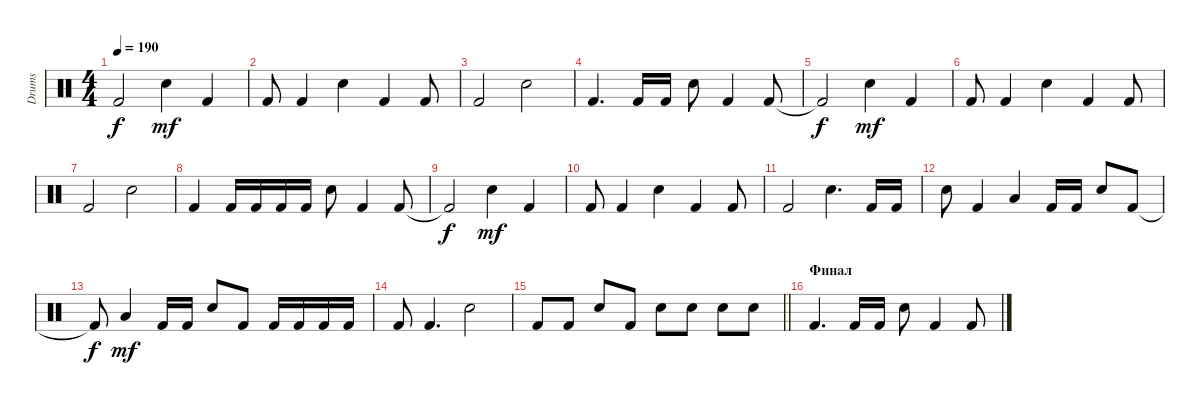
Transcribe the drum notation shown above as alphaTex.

\track ("Drums" "Drums") {instrument percussion}
\staff {score}
\articulation defaults
\ts (4 4)
\tempo 190
\clef neutral
\ks c "Kick (hit) 2"{t}.2{dy f} "Snare (hit) 2".4{dy mf} "Kick (hit) 2".4
|
"Kick (hit) 2".8 "Kick (hit) 2".4 "Snare (hit) 2".4 "Kick (hit) 2".4 "Kick (hit) 2".8 |
"Kick (hit) 2".2 "Snare (hit) 2".2 |
"Kick (hit) 2".4{d} "Kick (hit) 2".16 "Kick (hit) 2".16 "Snare (hit) 2".8 "Kick (hit) 2".4 "Kick (hit) 2".8 |
"Kick (hit) 2"{t}.2{dy f} "Snare (hit) 2".4{dy mf} "Kick (hit) 2".4 |
"Kick (hit) 2".8 "Kick (hit) 2".4 "Snare (hit) 2".4 "Kick (hit) 2".4 "Kick (hit) 2".8 |
"Kick (hit) 2".2 "Snare (hit) 2".2 |
"Kick (hit) 2".4 "Kick (hit) 2".16 "Kick (hit) 2".16 "Kick (hit) 2".16 "Kick (hit) 2".16 "Snare (hit) 2".8 "Kick (hit) 2".4 "Kick (hit) 2".8 |
"Kick (hit) 2"{t}.2{dy f} "Snare (hit) 2".4{dy mf} "Kick (hit) 2".4 |
"Kick (hit) 2".8 "Kick (hit) 2".4 "Snare (hit) 2".4 "Kick (hit) 2".4 "Kick (hit) 2".8 |
"Kick (hit) 2".2 "Snare (hit) 2".4{d} "Kick (hit) 2".16 "Kick (hit) 2".16 |
"Snare (hit) 2".8 "Kick (hit) 2".4 "Low Tom (hit)".4 "Kick (hit) 2".16 "Kick (hit) 2".16 "Snare (hit) 2".8 "Kick (hit) 2".8 |
"Kick (hit) 2"{t}.8{dy f} "Low Tom (hit)".4{dy mf} "Kick (hit) 2".16 "Kick (hit) 2".16 "Snare (hit) 2".8 "Kick (hit) 2".8 "Kick (hit) 2".16 "Kick (hit) 2".16 "Kick (hit) 2".16 "Kick (hit) 2".16 |
"Kick (hit) 2".8 "Kick (hit) 2".4{d} "Snare (hit) 2".2 |
\barLineRight lightlight "Kick (hit) 2".8 "Kick (hit) 2".8 "Snare (hit) 2".8 "Kick (hit) 2".8 "Snare (hit) 2".8 "Snare (hit) 2".8 "Snare (hit) 2".8 "Snare (hit) 2".8
|
\section ("" "Финал")
"Kick (hit) 2".4{d} "Kick (hit) 2".16 "Kick (hit) 2".16 "Snare (hit) 2".8 "Kick (hit) 2".4 "Kick (hit) 2".8
